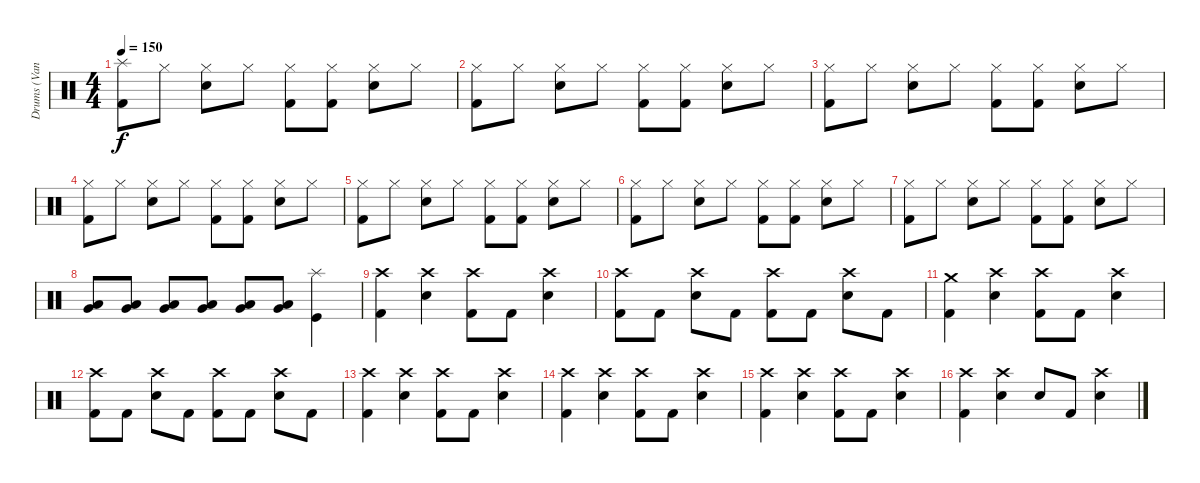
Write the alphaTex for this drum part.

\track ("Drums (Vandel)" "Drums (Van") {instrument percussion}
\staff {score}
\articulation defaults
\ts (4 4)
\tempo 150
\clef neutral
\ks c
("Splash (hit)" "Kick (hit) 2").8{dy f} "Hi-Hat (closed)".8 ("Hi-Hat (closed)" "Snare (hit) 2").8 "Hi-Hat (closed)".8 ("Hi-Hat (closed)" "Kick (hit) 2").8 ("Hi-Hat (closed)" "Kick (hit) 2").8 ("Hi-Hat (closed)" "Snare (hit) 2").8 "Hi-Hat (closed)".8 |
("Hi-Hat (closed)" "Kick (hit) 2").8 "Hi-Hat (closed)".8 ("Hi-Hat (closed)" "Snare (hit) 2").8 "Hi-Hat (closed)".8 ("Hi-Hat (closed)" "Kick (hit) 2").8 ("Hi-Hat (closed)" "Kick (hit) 2").8 ("Hi-Hat (closed)" "Snare (hit) 2").8 "Hi-Hat (closed)".8 |
("Hi-Hat (closed)" "Kick (hit) 2").8 "Hi-Hat (closed)".8 ("Hi-Hat (closed)" "Snare (hit) 2").8 "Hi-Hat (closed)".8 ("Hi-Hat (closed)" "Kick (hit) 2").8 ("Hi-Hat (closed)" "Kick (hit) 2").8 ("Hi-Hat (closed)" "Snare (hit) 2").8 "Hi-Hat (closed)".8 |
("Hi-Hat (closed)" "Kick (hit) 2").8 "Hi-Hat (closed)".8 ("Hi-Hat (closed)" "Snare (hit) 2").8 "Hi-Hat (closed)".8 ("Hi-Hat (closed)" "Kick (hit) 2").8 ("Hi-Hat (closed)" "Kick (hit) 2").8 ("Hi-Hat (closed)" "Snare (hit) 2").8 "Hi-Hat (closed)".8 |
("Hi-Hat (closed)" "Kick (hit) 2").8 "Hi-Hat (closed)".8 ("Hi-Hat (closed)" "Snare (hit) 2").8 "Hi-Hat (closed)".8 ("Hi-Hat (closed)" "Kick (hit) 2").8 ("Hi-Hat (closed)" "Kick (hit) 2").8 ("Hi-Hat (closed)" "Snare (hit) 2").8 "Hi-Hat (closed)".8 |
("Hi-Hat (closed)" "Kick (hit) 2").8 "Hi-Hat (closed)".8 ("Hi-Hat (closed)" "Snare (hit) 2").8 "Hi-Hat (closed)".8 ("Hi-Hat (closed)" "Kick (hit) 2").8 ("Hi-Hat (closed)" "Kick (hit) 2").8 ("Hi-Hat (closed)" "Snare (hit) 2").8 "Hi-Hat (closed)".8 |
("Hi-Hat (closed)" "Kick (hit) 2").8 "Hi-Hat (closed)".8 ("Hi-Hat (closed)" "Snare (hit) 2").8 "Hi-Hat (closed)".8 ("Hi-Hat (closed)" "Kick (hit) 2").8 ("Hi-Hat (closed)" "Kick (hit) 2").8 ("Hi-Hat (closed)" "Snare (hit) 2").8 "Hi-Hat (closed)".8 |
("Low Tom (hit)" "Very Low Tom (hit)").8 ("Low Tom (hit)" "Very Low Tom (hit)").8 ("Low Tom (hit)" "Very Low Tom (hit)").8 ("Low Tom (hit)" "Very Low Tom (hit)").8 ("Low Tom (hit)" "Very Low Tom (hit)").8 ("Low Tom (hit)" "Very Low Tom (hit)").8 ("Splash (hit)" "Kick (hit)").4 |
("Crash high (hit)" "Kick (hit) 2").4 ("Crash high (hit)" "Snare (hit) 2").4 ("Crash high (hit)" "Kick (hit) 2").8 "Kick (hit) 2".8 ("Crash high (hit)" "Snare (hit) 2").4 |
("Crash high (hit)" "Kick (hit) 2").8 "Kick (hit) 2".8 ("Crash high (hit)" "Snare (hit) 2").8 "Kick (hit) 2".8 ("Crash high (hit)" "Kick (hit) 2").8 "Kick (hit) 2".8 ("Crash high (hit)" "Snare (hit) 2").8 "Kick (hit) 2".8 |
("Crash medium (hit)" "Kick (hit) 2").4 ("Crash high (hit)" "Snare (hit) 2").4 ("Crash high (hit)" "Kick (hit) 2").8 "Kick (hit) 2".8 ("Crash high (hit)" "Snare (hit) 2").4 |
("Crash high (hit)" "Kick (hit) 2").8 "Kick (hit) 2".8 ("Crash high (hit)" "Snare (hit) 2").8 "Kick (hit) 2".8 ("Crash high (hit)" "Kick (hit) 2").8 "Kick (hit) 2".8 ("Crash high (hit)" "Snare (hit) 2").8 "Kick (hit) 2".8 |
("Crash high (hit)" "Kick (hit) 2").4 ("Crash high (hit)" "Snare (hit) 2").4 ("Crash high (hit)" "Kick (hit) 2").8 "Kick (hit) 2".8 ("Crash high (hit)" "Snare (hit) 2").4 |
("Crash high (hit)" "Kick (hit) 2").4 ("Crash high (hit)" "Snare (hit) 2").4 ("Crash high (hit)" "Kick (hit) 2").8 "Kick (hit) 2".8 ("Crash high (hit)" "Snare (hit) 2").4 |
("Crash high (hit)" "Kick (hit) 2").4 ("Crash high (hit)" "Snare (hit) 2").4 ("Crash high (hit)" "Kick (hit) 2").8 "Kick (hit) 2".8 ("Crash high (hit)" "Snare (hit) 2").4 |
("Crash high (hit)" "Kick (hit) 2").4 ("Crash high (hit)" "Snare (hit) 2").4 "Snare (hit) 2".8 "Kick (hit) 2".8 ("Crash high (hit)" "Snare (hit) 2").4
